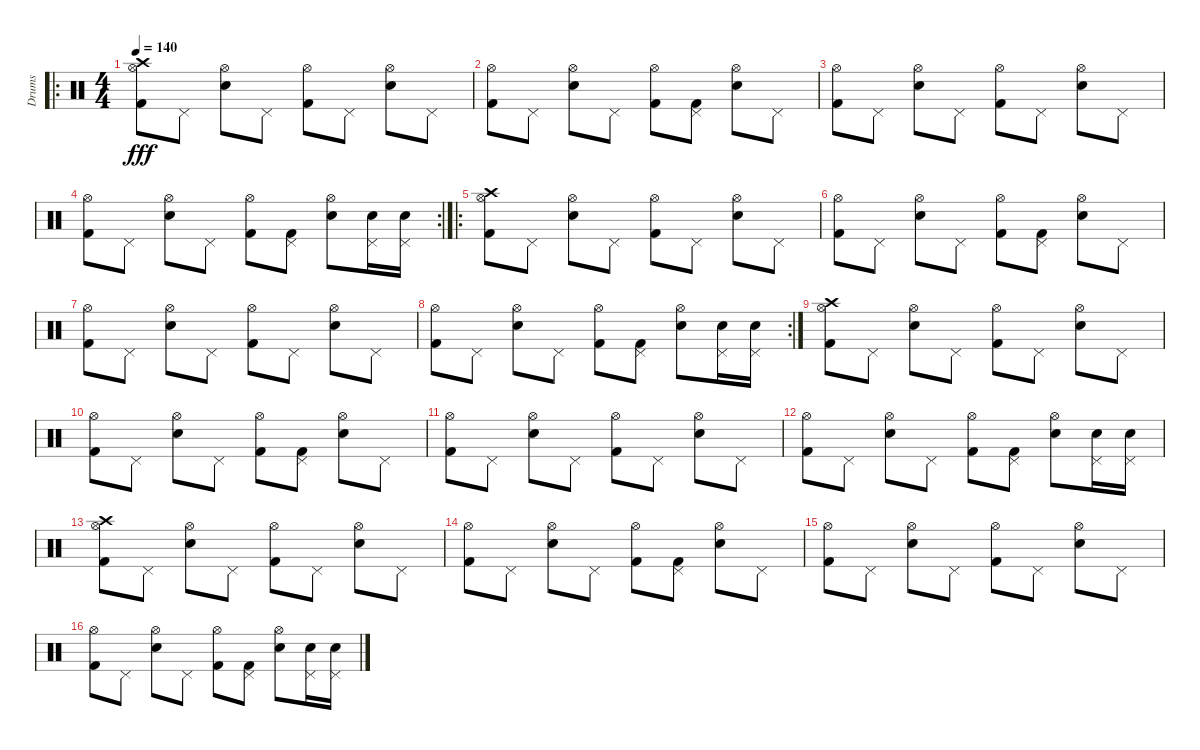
\track ("Drums" "Drums") {instrument percussion}
\staff {score}
\articulation defaults
\ro
\ts (4 4)
\tempo 140
\clef neutral
\ks c
("Hi-Hat (open)" "Kick (hit) 2" "Crash high (hit)").8{dy fff} "Pedal Hi-Hat (hit)".8 ("Hi-Hat (open)" "Snare (hit) 2").8 "Pedal Hi-Hat (hit)".8 ("Hi-Hat (open)" "Kick (hit) 2").8 "Pedal Hi-Hat (hit)".8 ("Hi-Hat (open)" "Snare (hit) 2").8 "Pedal Hi-Hat (hit)".8 |
("Hi-Hat (open)" "Kick (hit) 2").8 "Pedal Hi-Hat (hit)".8 ("Hi-Hat (open)" "Snare (hit) 2").8 "Pedal Hi-Hat (hit)".8 ("Hi-Hat (open)" "Kick (hit) 2").8 ("Pedal Hi-Hat (hit)" "Kick (hit) 2").8 ("Hi-Hat (open)" "Snare (hit) 2").8 "Pedal Hi-Hat (hit)".8 |
("Hi-Hat (open)" "Kick (hit) 2").8 "Pedal Hi-Hat (hit)".8 ("Hi-Hat (open)" "Snare (hit) 2").8 "Pedal Hi-Hat (hit)".8 ("Hi-Hat (open)" "Kick (hit) 2").8 "Pedal Hi-Hat (hit)".8 ("Hi-Hat (open)" "Snare (hit) 2").8 "Pedal Hi-Hat (hit)".8 |
\rc 2
("Hi-Hat (open)" "Kick (hit) 2").8 "Pedal Hi-Hat (hit)".8 ("Hi-Hat (open)" "Snare (hit) 2").8 "Pedal Hi-Hat (hit)".8 ("Hi-Hat (open)" "Kick (hit) 2").8 ("Pedal Hi-Hat (hit)" "Kick (hit) 2").8 ("Hi-Hat (open)" "Snare (hit) 2").8 ("Pedal Hi-Hat (hit)" "Snare (hit) 2").16 ("Pedal Hi-Hat (hit)" "Snare (hit) 2").16 |
\ro
("Hi-Hat (open)" "Kick (hit) 2" "Crash high (hit)").8 "Pedal Hi-Hat (hit)".8 ("Hi-Hat (open)" "Snare (hit) 2").8 "Pedal Hi-Hat (hit)".8 ("Hi-Hat (open)" "Kick (hit) 2").8 "Pedal Hi-Hat (hit)".8 ("Hi-Hat (open)" "Snare (hit) 2").8 "Pedal Hi-Hat (hit)".8 |
("Hi-Hat (open)" "Kick (hit) 2").8 "Pedal Hi-Hat (hit)".8 ("Hi-Hat (open)" "Snare (hit) 2").8 "Pedal Hi-Hat (hit)".8 ("Hi-Hat (open)" "Kick (hit) 2").8 ("Pedal Hi-Hat (hit)" "Kick (hit) 2").8 ("Hi-Hat (open)" "Snare (hit) 2").8 "Pedal Hi-Hat (hit)".8 |
("Hi-Hat (open)" "Kick (hit) 2").8 "Pedal Hi-Hat (hit)".8 ("Hi-Hat (open)" "Snare (hit) 2").8 "Pedal Hi-Hat (hit)".8 ("Hi-Hat (open)" "Kick (hit) 2").8 "Pedal Hi-Hat (hit)".8 ("Hi-Hat (open)" "Snare (hit) 2").8 "Pedal Hi-Hat (hit)".8 |
\rc 2
("Hi-Hat (open)" "Kick (hit) 2").8 "Pedal Hi-Hat (hit)".8 ("Hi-Hat (open)" "Snare (hit) 2").8 "Pedal Hi-Hat (hit)".8 ("Hi-Hat (open)" "Kick (hit) 2").8 ("Pedal Hi-Hat (hit)" "Kick (hit) 2").8 ("Hi-Hat (open)" "Snare (hit) 2").8 ("Pedal Hi-Hat (hit)" "Snare (hit) 2").16 ("Pedal Hi-Hat (hit)" "Snare (hit) 2").16 |
("Hi-Hat (open)" "Kick (hit) 2" "Crash high (hit)").8 "Pedal Hi-Hat (hit)".8 ("Hi-Hat (open)" "Snare (hit) 2").8 "Pedal Hi-Hat (hit)".8 ("Hi-Hat (open)" "Kick (hit) 2").8 "Pedal Hi-Hat (hit)".8 ("Hi-Hat (open)" "Snare (hit) 2").8 "Pedal Hi-Hat (hit)".8 |
("Hi-Hat (open)" "Kick (hit) 2").8 "Pedal Hi-Hat (hit)".8 ("Hi-Hat (open)" "Snare (hit) 2").8 "Pedal Hi-Hat (hit)".8 ("Hi-Hat (open)" "Kick (hit) 2").8 ("Pedal Hi-Hat (hit)" "Kick (hit) 2").8 ("Hi-Hat (open)" "Snare (hit) 2").8 "Pedal Hi-Hat (hit)".8 |
("Hi-Hat (open)" "Kick (hit) 2").8 "Pedal Hi-Hat (hit)".8 ("Hi-Hat (open)" "Snare (hit) 2").8 "Pedal Hi-Hat (hit)".8 ("Hi-Hat (open)" "Kick (hit) 2").8 "Pedal Hi-Hat (hit)".8 ("Hi-Hat (open)" "Snare (hit) 2").8 "Pedal Hi-Hat (hit)".8 |
("Hi-Hat (open)" "Kick (hit) 2").8 "Pedal Hi-Hat (hit)".8 ("Hi-Hat (open)" "Snare (hit) 2").8 "Pedal Hi-Hat (hit)".8 ("Hi-Hat (open)" "Kick (hit) 2").8 ("Pedal Hi-Hat (hit)" "Kick (hit) 2").8 ("Hi-Hat (open)" "Snare (hit) 2").8 ("Pedal Hi-Hat (hit)" "Snare (hit) 2").16 ("Pedal Hi-Hat (hit)" "Snare (hit) 2").16 |
("Hi-Hat (open)" "Kick (hit) 2" "Crash high (hit)").8 "Pedal Hi-Hat (hit)".8 ("Hi-Hat (open)" "Snare (hit) 2").8 "Pedal Hi-Hat (hit)".8 ("Hi-Hat (open)" "Kick (hit) 2").8 "Pedal Hi-Hat (hit)".8 ("Hi-Hat (open)" "Snare (hit) 2").8 "Pedal Hi-Hat (hit)".8 |
("Hi-Hat (open)" "Kick (hit) 2").8 "Pedal Hi-Hat (hit)".8 ("Hi-Hat (open)" "Snare (hit) 2").8 "Pedal Hi-Hat (hit)".8 ("Hi-Hat (open)" "Kick (hit) 2").8 ("Pedal Hi-Hat (hit)" "Kick (hit) 2").8 ("Hi-Hat (open)" "Snare (hit) 2").8 "Pedal Hi-Hat (hit)".8 |
("Hi-Hat (open)" "Kick (hit) 2").8 "Pedal Hi-Hat (hit)".8 ("Hi-Hat (open)" "Snare (hit) 2").8 "Pedal Hi-Hat (hit)".8 ("Hi-Hat (open)" "Kick (hit) 2").8 "Pedal Hi-Hat (hit)".8 ("Hi-Hat (open)" "Snare (hit) 2").8 "Pedal Hi-Hat (hit)".8 |
("Hi-Hat (open)" "Kick (hit) 2").8 "Pedal Hi-Hat (hit)".8 ("Hi-Hat (open)" "Snare (hit) 2").8 "Pedal Hi-Hat (hit)".8 ("Hi-Hat (open)" "Kick (hit) 2").8 ("Pedal Hi-Hat (hit)" "Kick (hit) 2").8 ("Hi-Hat (open)" "Snare (hit) 2").8 ("Pedal Hi-Hat (hit)" "Snare (hit) 2").16 ("Pedal Hi-Hat (hit)" "Snare (hit) 2").16
